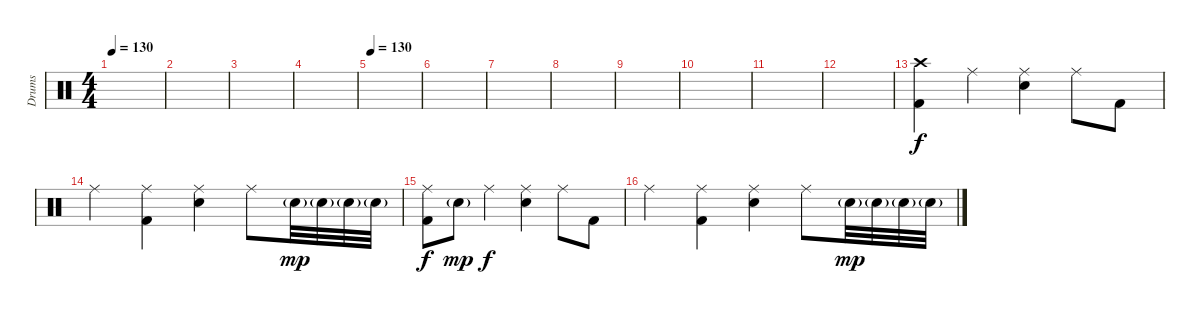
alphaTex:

\track ("Drums" "Drums") {instrument percussion}
\staff {score}
\articulation defaults
\ts (4 4)
\tempo 130
\tempo 105
\tempo 130
\clef neutral
\ks c
|
|
|
|
\tempo 130
|
|
|
|
|
|
|
|
("Crash high (hit)" "Kick (hit) 2").4 "Ride (middle)".4 ("Ride (middle)" "Electric Snare (hit)").4 "Ride (middle)".8 "Kick (hit) 2".8 |
"Ride (middle)".4 ("Ride (middle)" "Kick (hit) 2").4 ("Ride (middle)" "Electric Snare (hit)").4 "Ride (middle)".8 "Electric Snare (hit)"{g}.32{dy mp} "Electric Snare (hit)"{g}.32 "Electric Snare (hit)"{g}.32 "Electric Snare (hit)"{g}.32 |
("Ride (middle)" "Kick (hit) 2").8{dy f} "Electric Snare (hit)"{g}.8{dy mp} "Ride (middle)".4{dy f} ("Ride (middle)" "Electric Snare (hit)").4 "Ride (middle)".8 "Kick (hit) 2".8 |
"Ride (middle)".4 ("Ride (middle)" "Kick (hit) 2").4 ("Ride (middle)" "Electric Snare (hit)").4 "Ride (middle)".8 "Electric Snare (hit)"{g}.32{dy mp} "Electric Snare (hit)"{g}.32 "Electric Snare (hit)"{g}.32 "Electric Snare (hit)"{g}.32
